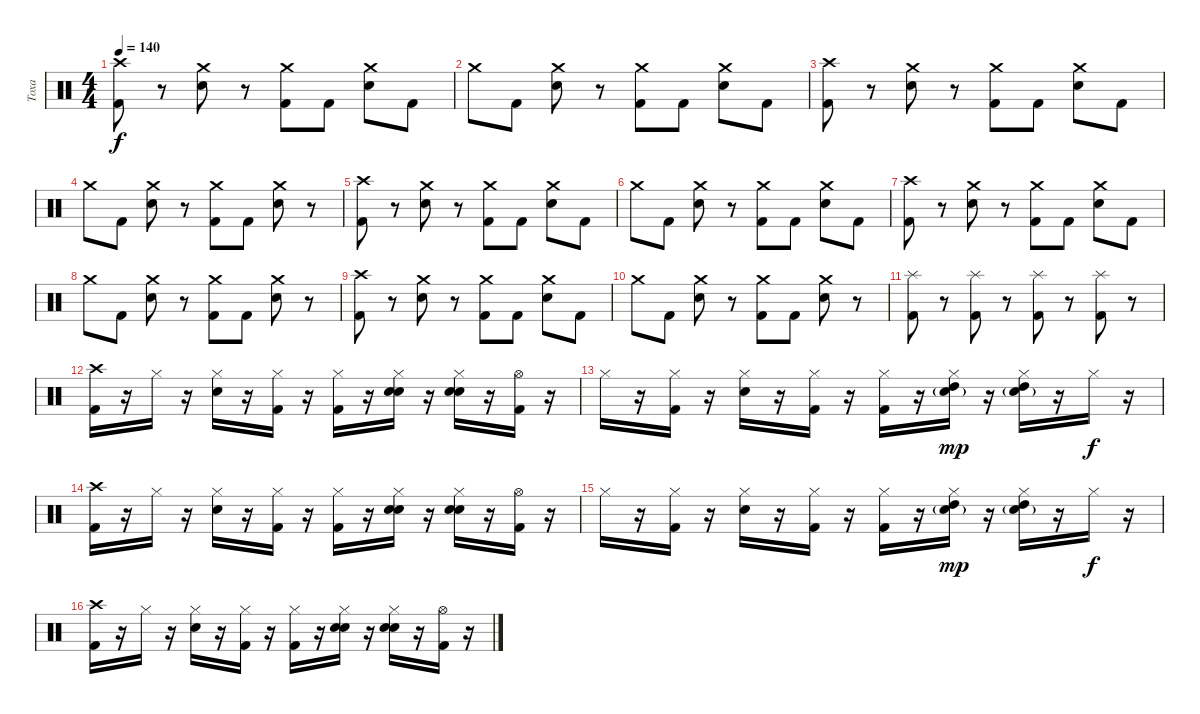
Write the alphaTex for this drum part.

\track ("Тоха" "Тоха") {instrument percussion}
\staff {score}
\articulation defaults
\ts (4 4)
\tempo 140
\clef neutral
\ks c
("Kick (hit) 2" "Crash high (hit)").8{dy f} r.8 ("Snare (hit) 2" "Crash medium (hit)").8 r.8 ("Kick (hit) 2" "Crash medium (hit)").8 "Kick (hit) 2".8 ("Snare (hit) 2" "Crash medium (hit)").8 "Kick (hit) 2".8 |
"Crash medium (hit)".8 "Kick (hit) 2".8 ("Snare (hit) 2" "Crash medium (hit)").8 r.8 ("Kick (hit) 2" "Crash medium (hit)").8 "Kick (hit) 2".8 ("Snare (hit) 2" "Crash medium (hit)").8 "Kick (hit) 2".8 |
("Kick (hit) 2" "Crash high (hit)").8 r.8 ("Snare (hit) 2" "Crash medium (hit)").8 r.8 ("Kick (hit) 2" "Crash medium (hit)").8 "Kick (hit) 2".8 ("Snare (hit) 2" "Crash medium (hit)").8 "Kick (hit) 2".8 |
"Crash medium (hit)".8 "Kick (hit) 2".8 ("Snare (hit) 2" "Crash medium (hit)").8 r.8 ("Kick (hit) 2" "Crash medium (hit)").8 "Kick (hit) 2".8 ("Snare (hit) 2" "Crash medium (hit)").8 r.8 |
("Kick (hit) 2" "Crash high (hit)").8 r.8 ("Snare (hit) 2" "Crash medium (hit)").8 r.8 ("Kick (hit) 2" "Crash medium (hit)").8 "Kick (hit) 2".8 ("Snare (hit) 2" "Crash medium (hit)").8 "Kick (hit) 2".8 |
"Crash medium (hit)".8 "Kick (hit) 2".8 ("Snare (hit) 2" "Crash medium (hit)").8 r.8 ("Kick (hit) 2" "Crash medium (hit)").8 "Kick (hit) 2".8 ("Snare (hit) 2" "Crash medium (hit)").8 "Kick (hit) 2".8 |
("Kick (hit) 2" "Crash high (hit)").8 r.8 ("Snare (hit) 2" "Crash medium (hit)").8 r.8 ("Kick (hit) 2" "Crash medium (hit)").8 "Kick (hit) 2".8 ("Snare (hit) 2" "Crash medium (hit)").8 "Kick (hit) 2".8 |
"Crash medium (hit)".8 "Kick (hit) 2".8 ("Snare (hit) 2" "Crash medium (hit)").8 r.8 ("Kick (hit) 2" "Crash medium (hit)").8 "Kick (hit) 2".8 ("Snare (hit) 2" "Crash medium (hit)").8 r.8 |
("Kick (hit) 2" "Crash high (hit)").8 r.8 ("Snare (hit) 2" "Crash medium (hit)").8 r.8 ("Kick (hit) 2" "Crash medium (hit)").8 "Kick (hit) 2".8 ("Snare (hit) 2" "Crash medium (hit)").8 "Kick (hit) 2".8 |
"Crash medium (hit)".8 "Kick (hit) 2".8 ("Snare (hit) 2" "Crash medium (hit)").8 r.8 ("Kick (hit) 2" "Crash medium (hit)").8 "Kick (hit) 2".8 ("Snare (hit) 2" "Crash medium (hit)").8 r.8 |
("Kick (hit) 2" "Splash (hit)").8 r.8 ("Kick (hit) 2" "Splash (hit)").8 r.8 ("Kick (hit) 2" "Splash (hit)").8 r.8 ("Kick (hit) 2" "Splash (hit)").8 r.8 |
("Kick (hit) 2" "Crash high (hit)").16 r.16 "Hi-Hat (closed)".16 r.16 ("Snare (hit) 2" "Hi-Hat (closed)").16 r.16 ("Kick (hit) 2" "Hi-Hat (closed)").16 r.16 ("Kick (hit) 2" "Hi-Hat (closed)").16 r.16 ("Snare (hit) 2" "Hi-Hat (closed)" "Hand Clap (hit)").16 r.16 ("Snare (hit) 2" "Hi-Hat (closed)" "Hand Clap (hit)").16 r.16 ("Kick (hit) 2" "Hi-Hat (open)").16 r.16 |
"Hi-Hat (closed)".16 r.16 ("Kick (hit) 2" "Hi-Hat (closed)").16 r.16 ("Snare (hit) 2" "Hi-Hat (closed)").16 r.16 ("Kick (hit) 2" "Hi-Hat (closed)").16 r.16 ("Kick (hit) 2" "Hi-Hat (closed)").16 r.16 ("High Tom (hit)" "Hi-Hat (closed)" "Snare (hit) 2"{g}).16{dy mp} r.16 ("High Tom (hit)" "Hi-Hat (closed)" "Snare (hit) 2"{g}).16 r.16 "Hi-Hat (closed)".16{dy f} r.16 |
("Kick (hit) 2" "Crash high (hit)").16 r.16 "Hi-Hat (closed)".16 r.16 ("Snare (hit) 2" "Hi-Hat (closed)").16 r.16 ("Kick (hit) 2" "Hi-Hat (closed)").16 r.16 ("Kick (hit) 2" "Hi-Hat (closed)").16 r.16 ("Snare (hit) 2" "Hi-Hat (closed)" "Hand Clap (hit)").16 r.16 ("Snare (hit) 2" "Hi-Hat (closed)" "Hand Clap (hit)").16 r.16 ("Kick (hit) 2" "Hi-Hat (open)").16 r.16 |
"Hi-Hat (closed)".16 r.16 ("Kick (hit) 2" "Hi-Hat (closed)").16 r.16 ("Snare (hit) 2" "Hi-Hat (closed)").16 r.16 ("Kick (hit) 2" "Hi-Hat (closed)").16 r.16 ("Kick (hit) 2" "Hi-Hat (closed)").16 r.16 ("High Tom (hit)" "Hi-Hat (closed)" "Snare (hit) 2"{g}).16{dy mp} r.16 ("High Tom (hit)" "Hi-Hat (closed)" "Snare (hit) 2"{g}).16 r.16 "Hi-Hat (closed)".16{dy f} r.16 |
("Kick (hit) 2" "Crash high (hit)").16 r.16 "Hi-Hat (closed)".16 r.16 ("Snare (hit) 2" "Hi-Hat (closed)").16 r.16 ("Kick (hit) 2" "Hi-Hat (closed)").16 r.16 ("Kick (hit) 2" "Hi-Hat (closed)").16 r.16 ("Snare (hit) 2" "Hi-Hat (closed)" "Hand Clap (hit)").16 r.16 ("Snare (hit) 2" "Hi-Hat (closed)" "Hand Clap (hit)").16 r.16 ("Kick (hit) 2" "Hi-Hat (open)").16 r.16
